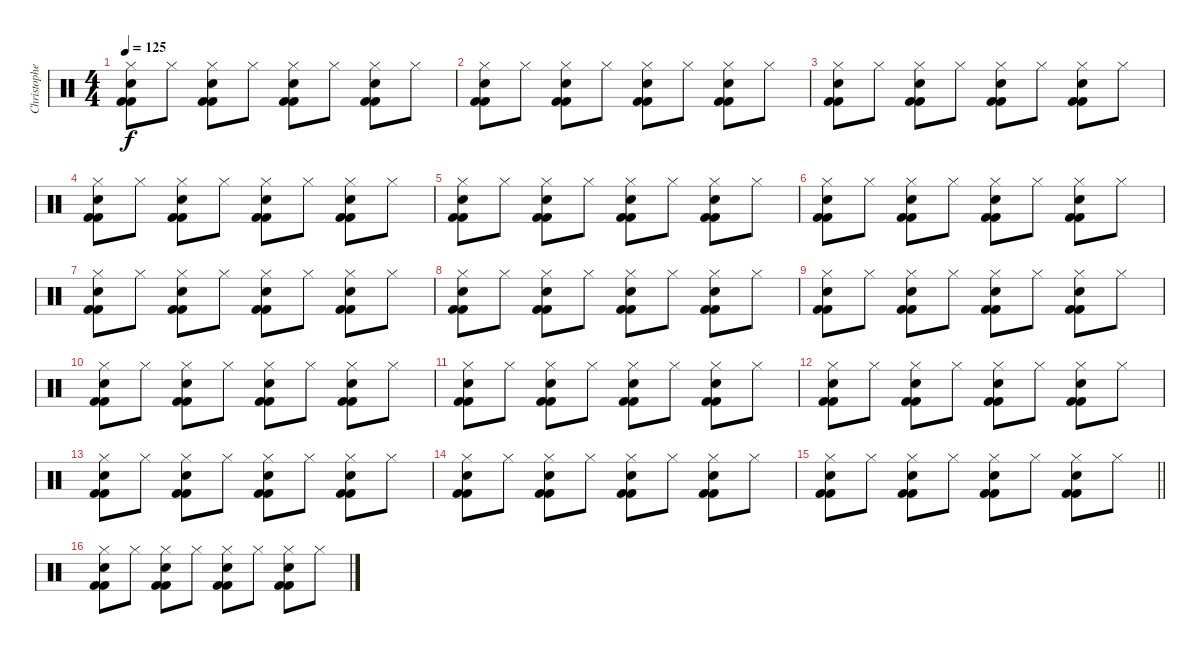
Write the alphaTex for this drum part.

\track ("Christopher S. (Drums)" "Christophe") {instrument percussion}
\staff {score}
\articulation defaults
\ts (4 4)
\tempo 125
\clef neutral
\ks c
("Hi-Hat (closed)" "Kick (hit) 2" "Kick (hit) 2" "Electric Snare (hit)").8{dy f} "Hi-Hat (closed)".8 ("Hi-Hat (closed)" "Kick (hit) 2" "Kick (hit) 2" "Electric Snare (hit)").8 "Hi-Hat (closed)".8 ("Hi-Hat (closed)" "Kick (hit) 2" "Kick (hit) 2" "Electric Snare (hit)").8 "Hi-Hat (closed)".8 ("Hi-Hat (closed)" "Kick (hit) 2" "Kick (hit) 2" "Electric Snare (hit)").8 "Hi-Hat (closed)".8 |
("Hi-Hat (closed)" "Kick (hit) 2" "Kick (hit) 2" "Electric Snare (hit)").8 "Hi-Hat (closed)".8 ("Hi-Hat (closed)" "Kick (hit) 2" "Kick (hit) 2" "Electric Snare (hit)").8 "Hi-Hat (closed)".8 ("Hi-Hat (closed)" "Kick (hit) 2" "Kick (hit) 2" "Electric Snare (hit)").8 "Hi-Hat (closed)".8 ("Hi-Hat (closed)" "Kick (hit) 2" "Kick (hit) 2" "Electric Snare (hit)").8 "Hi-Hat (closed)".8 |
("Hi-Hat (closed)" "Kick (hit) 2" "Kick (hit) 2" "Electric Snare (hit)").8 "Hi-Hat (closed)".8 ("Hi-Hat (closed)" "Kick (hit) 2" "Kick (hit) 2" "Electric Snare (hit)").8 "Hi-Hat (closed)".8 ("Hi-Hat (closed)" "Kick (hit) 2" "Kick (hit) 2" "Electric Snare (hit)").8 "Hi-Hat (closed)".8 ("Hi-Hat (closed)" "Kick (hit) 2" "Kick (hit) 2" "Electric Snare (hit)").8 "Hi-Hat (closed)".8 |
("Hi-Hat (closed)" "Kick (hit) 2" "Kick (hit) 2" "Electric Snare (hit)").8 "Hi-Hat (closed)".8 ("Hi-Hat (closed)" "Kick (hit) 2" "Kick (hit) 2" "Electric Snare (hit)").8 "Hi-Hat (closed)".8 ("Hi-Hat (closed)" "Kick (hit) 2" "Kick (hit) 2" "Electric Snare (hit)").8 "Hi-Hat (closed)".8 ("Hi-Hat (closed)" "Kick (hit) 2" "Kick (hit) 2" "Electric Snare (hit)").8 "Hi-Hat (closed)".8 |
("Hi-Hat (closed)" "Kick (hit) 2" "Kick (hit) 2" "Electric Snare (hit)").8 "Hi-Hat (closed)".8 ("Hi-Hat (closed)" "Kick (hit) 2" "Kick (hit) 2" "Electric Snare (hit)").8 "Hi-Hat (closed)".8 ("Hi-Hat (closed)" "Kick (hit) 2" "Kick (hit) 2" "Electric Snare (hit)").8 "Hi-Hat (closed)".8 ("Hi-Hat (closed)" "Kick (hit) 2" "Kick (hit) 2" "Electric Snare (hit)").8 "Hi-Hat (closed)".8 |
("Hi-Hat (closed)" "Kick (hit) 2" "Kick (hit) 2" "Electric Snare (hit)").8 "Hi-Hat (closed)".8 ("Hi-Hat (closed)" "Kick (hit) 2" "Kick (hit) 2" "Electric Snare (hit)").8 "Hi-Hat (closed)".8 ("Hi-Hat (closed)" "Kick (hit) 2" "Kick (hit) 2" "Electric Snare (hit)").8 "Hi-Hat (closed)".8 ("Hi-Hat (closed)" "Kick (hit) 2" "Kick (hit) 2" "Electric Snare (hit)").8 "Hi-Hat (closed)".8 |
("Hi-Hat (closed)" "Kick (hit) 2" "Kick (hit) 2" "Electric Snare (hit)").8 "Hi-Hat (closed)".8 ("Hi-Hat (closed)" "Kick (hit) 2" "Kick (hit) 2" "Electric Snare (hit)").8 "Hi-Hat (closed)".8 ("Hi-Hat (closed)" "Kick (hit) 2" "Kick (hit) 2" "Electric Snare (hit)").8 "Hi-Hat (closed)".8 ("Hi-Hat (closed)" "Kick (hit) 2" "Kick (hit) 2" "Electric Snare (hit)").8 "Hi-Hat (closed)".8 |
("Hi-Hat (closed)" "Kick (hit) 2" "Kick (hit) 2" "Electric Snare (hit)").8 "Hi-Hat (closed)".8 ("Hi-Hat (closed)" "Kick (hit) 2" "Kick (hit) 2" "Electric Snare (hit)").8 "Hi-Hat (closed)".8 ("Hi-Hat (closed)" "Kick (hit) 2" "Kick (hit) 2" "Electric Snare (hit)").8 "Hi-Hat (closed)".8 ("Hi-Hat (closed)" "Kick (hit) 2" "Kick (hit) 2" "Electric Snare (hit)").8 "Hi-Hat (closed)".8 |
("Hi-Hat (closed)" "Kick (hit) 2" "Kick (hit) 2" "Electric Snare (hit)").8 "Hi-Hat (closed)".8 ("Hi-Hat (closed)" "Kick (hit) 2" "Kick (hit) 2" "Electric Snare (hit)").8 "Hi-Hat (closed)".8 ("Hi-Hat (closed)" "Kick (hit) 2" "Kick (hit) 2" "Electric Snare (hit)").8 "Hi-Hat (closed)".8 ("Hi-Hat (closed)" "Kick (hit) 2" "Kick (hit) 2" "Electric Snare (hit)").8 "Hi-Hat (closed)".8 |
("Hi-Hat (closed)" "Kick (hit) 2" "Kick (hit) 2" "Electric Snare (hit)").8 "Hi-Hat (closed)".8 ("Hi-Hat (closed)" "Kick (hit) 2" "Kick (hit) 2" "Electric Snare (hit)").8 "Hi-Hat (closed)".8 ("Hi-Hat (closed)" "Kick (hit) 2" "Kick (hit) 2" "Electric Snare (hit)").8 "Hi-Hat (closed)".8 ("Hi-Hat (closed)" "Kick (hit) 2" "Kick (hit) 2" "Electric Snare (hit)").8 "Hi-Hat (closed)".8 |
("Hi-Hat (closed)" "Kick (hit) 2" "Kick (hit) 2" "Electric Snare (hit)").8 "Hi-Hat (closed)".8 ("Hi-Hat (closed)" "Kick (hit) 2" "Kick (hit) 2" "Electric Snare (hit)").8 "Hi-Hat (closed)".8 ("Hi-Hat (closed)" "Kick (hit) 2" "Kick (hit) 2" "Electric Snare (hit)").8 "Hi-Hat (closed)".8 ("Hi-Hat (closed)" "Kick (hit) 2" "Kick (hit) 2" "Electric Snare (hit)").8 "Hi-Hat (closed)".8 |
("Hi-Hat (closed)" "Kick (hit) 2" "Kick (hit) 2" "Electric Snare (hit)").8 "Hi-Hat (closed)".8 ("Hi-Hat (closed)" "Kick (hit) 2" "Kick (hit) 2" "Electric Snare (hit)").8 "Hi-Hat (closed)".8 ("Hi-Hat (closed)" "Kick (hit) 2" "Kick (hit) 2" "Electric Snare (hit)").8 "Hi-Hat (closed)".8 ("Hi-Hat (closed)" "Kick (hit) 2" "Kick (hit) 2" "Electric Snare (hit)").8 "Hi-Hat (closed)".8 |
("Hi-Hat (closed)" "Kick (hit) 2" "Kick (hit) 2" "Electric Snare (hit)").8 "Hi-Hat (closed)".8 ("Hi-Hat (closed)" "Kick (hit) 2" "Kick (hit) 2" "Electric Snare (hit)").8 "Hi-Hat (closed)".8 ("Hi-Hat (closed)" "Kick (hit) 2" "Kick (hit) 2" "Electric Snare (hit)").8 "Hi-Hat (closed)".8 ("Hi-Hat (closed)" "Kick (hit) 2" "Kick (hit) 2" "Electric Snare (hit)").8 "Hi-Hat (closed)".8 |
("Hi-Hat (closed)" "Kick (hit) 2" "Kick (hit) 2" "Electric Snare (hit)").8 "Hi-Hat (closed)".8 ("Hi-Hat (closed)" "Kick (hit) 2" "Kick (hit) 2" "Electric Snare (hit)").8 "Hi-Hat (closed)".8 ("Hi-Hat (closed)" "Kick (hit) 2" "Kick (hit) 2" "Electric Snare (hit)").8 "Hi-Hat (closed)".8 ("Hi-Hat (closed)" "Kick (hit) 2" "Kick (hit) 2" "Electric Snare (hit)").8 "Hi-Hat (closed)".8 |
\barLineRight lightlight
("Hi-Hat (closed)" "Kick (hit) 2" "Kick (hit) 2" "Electric Snare (hit)").8 "Hi-Hat (closed)".8 ("Hi-Hat (closed)" "Kick (hit) 2" "Kick (hit) 2" "Electric Snare (hit)").8 "Hi-Hat (closed)".8 ("Hi-Hat (closed)" "Kick (hit) 2" "Kick (hit) 2" "Electric Snare (hit)").8 "Hi-Hat (closed)".8 ("Hi-Hat (closed)" "Kick (hit) 2" "Kick (hit) 2" "Electric Snare (hit)").8 "Hi-Hat (closed)".8 |
("Hi-Hat (closed)" "Kick (hit) 2" "Kick (hit) 2" "Electric Snare (hit)").8 "Hi-Hat (closed)".8 ("Hi-Hat (closed)" "Kick (hit) 2" "Kick (hit) 2" "Electric Snare (hit)").8 "Hi-Hat (closed)".8 ("Hi-Hat (closed)" "Kick (hit) 2" "Kick (hit) 2" "Electric Snare (hit)").8 "Hi-Hat (closed)".8 ("Hi-Hat (closed)" "Kick (hit) 2" "Kick (hit) 2" "Electric Snare (hit)").8 "Hi-Hat (closed)".8
